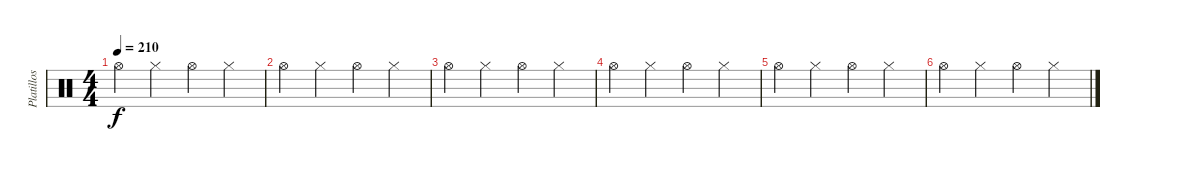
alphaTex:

\track ("Platillos (Leo)" "Platillos ") {instrument percussion}
\staff {score}
\articulation defaults
\ts (4 4)
\tempo 210
\clef neutral
\ks c "Hi-Hat (open)".4{dy f} "Hi-Hat (closed)".4 "Hi-Hat (open)".4 "Hi-Hat (closed)".4
|
"Hi-Hat (open)".4 "Hi-Hat (closed)".4 "Hi-Hat (open)".4 "Hi-Hat (closed)".4 |
"Hi-Hat (open)".4 "Hi-Hat (closed)".4 "Hi-Hat (open)".4 "Hi-Hat (closed)".4 |
"Hi-Hat (open)".4 "Hi-Hat (closed)".4 "Hi-Hat (open)".4 "Hi-Hat (closed)".4 |
"Hi-Hat (open)".4 "Hi-Hat (closed)".4 "Hi-Hat (open)".4 "Hi-Hat (closed)".4 |
"Hi-Hat (open)".4 "Hi-Hat (closed)".4 "Hi-Hat (open)".4 "Hi-Hat (closed)".4
